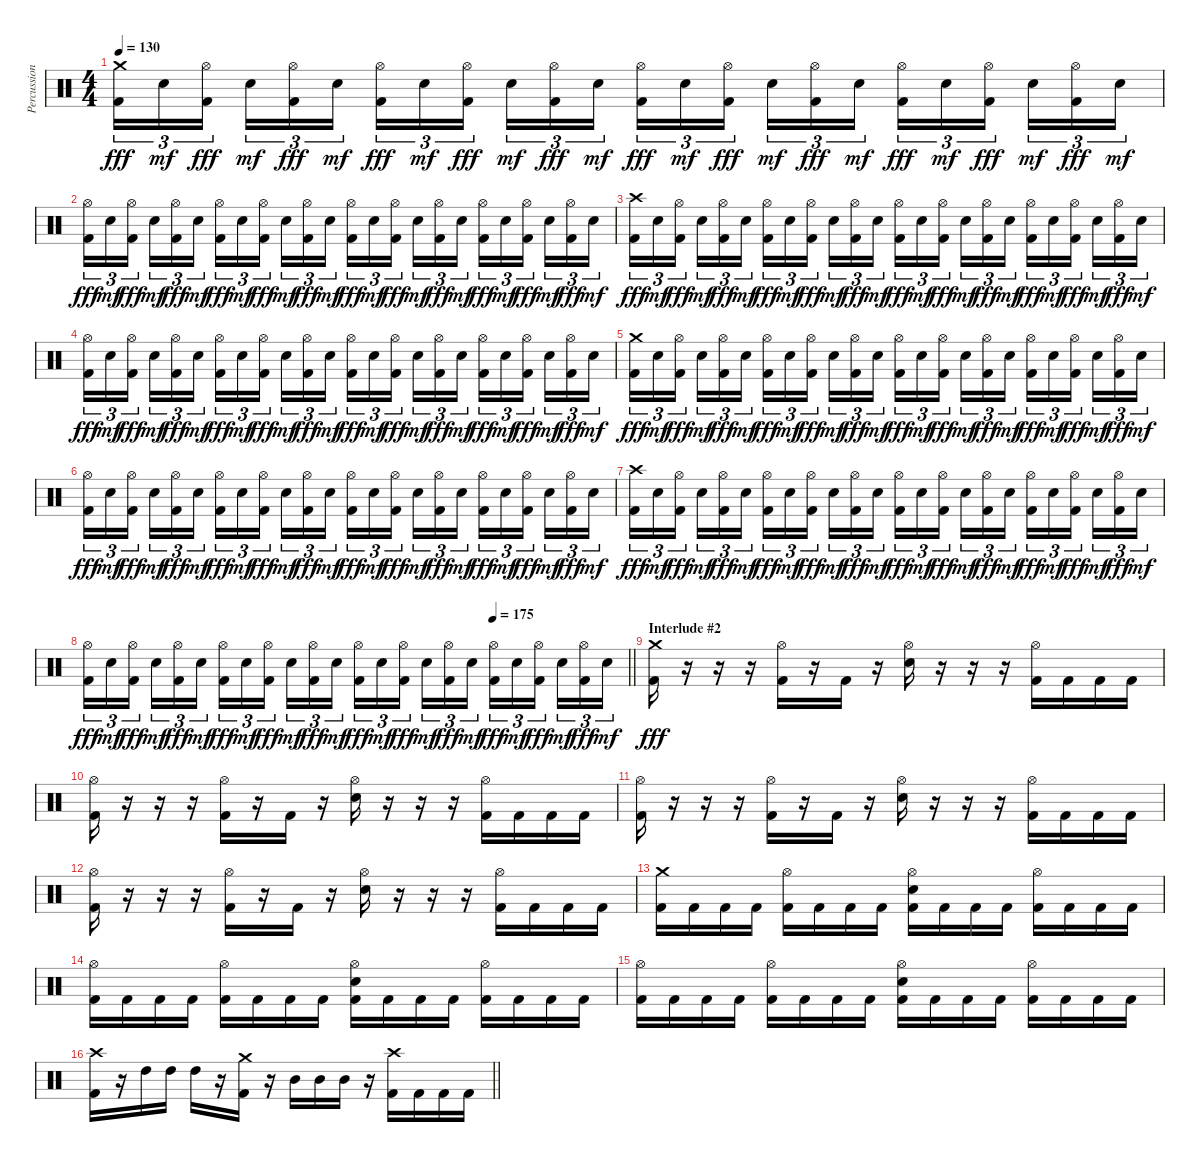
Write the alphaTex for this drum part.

\track ("Percussions" "Percussion") {instrument percussion}
\staff {score}
\articulation defaults
\ts (4 4)
\tempo 130
\clef neutral
\ks c
("Crash medium (hit)" "Kick (hit) 2").16{tu (3 2) dy fff} "Snare (hit) 2".16{tu (3 2) dy mf} ("Hi-Hat (open)" "Kick (hit) 2").16{tu (3 2) dy fff beam splitsecondary} "Snare (hit) 2".16{tu (3 2) dy mf} ("Hi-Hat (open)" "Kick (hit) 2").16{tu (3 2) dy fff} "Snare (hit) 2".16{tu (3 2) dy mf} ("Hi-Hat (open)" "Kick (hit) 2").16{tu (3 2) dy fff} "Snare (hit) 2".16{tu (3 2) dy mf} ("Hi-Hat (open)" "Kick (hit) 2").16{tu (3 2) dy fff beam splitsecondary} "Snare (hit) 2".16{tu (3 2) dy mf} ("Hi-Hat (open)" "Kick (hit) 2").16{tu (3 2) dy fff} "Snare (hit) 2".16{tu (3 2) dy mf} ("Hi-Hat (open)" "Kick (hit) 2").16{tu (3 2) dy fff} "Snare (hit) 2".16{tu (3 2) dy mf} ("Hi-Hat (open)" "Kick (hit) 2").16{tu (3 2) dy fff beam splitsecondary} "Snare (hit) 2".16{tu (3 2) dy mf} ("Hi-Hat (open)" "Kick (hit) 2").16{tu (3 2) dy fff} "Snare (hit) 2".16{tu (3 2) dy mf} ("Hi-Hat (open)" "Kick (hit) 2").16{tu (3 2) dy fff} "Snare (hit) 2".16{tu (3 2) dy mf} ("Hi-Hat (open)" "Kick (hit) 2").16{tu (3 2) dy fff beam splitsecondary} "Snare (hit) 2".16{tu (3 2) dy mf} ("Hi-Hat (open)" "Kick (hit) 2").16{tu (3 2) dy fff} "Snare (hit) 2".16{tu (3 2) dy mf} |
("Hi-Hat (open)" "Kick (hit) 2").16{tu (3 2) dy fff} "Snare (hit) 2".16{tu (3 2) dy mf} ("Hi-Hat (open)" "Kick (hit) 2").16{tu (3 2) dy fff beam splitsecondary} "Snare (hit) 2".16{tu (3 2) dy mf} ("Hi-Hat (open)" "Kick (hit) 2").16{tu (3 2) dy fff} "Snare (hit) 2".16{tu (3 2) dy mf} ("Hi-Hat (open)" "Kick (hit) 2").16{tu (3 2) dy fff} "Snare (hit) 2".16{tu (3 2) dy mf} ("Hi-Hat (open)" "Kick (hit) 2").16{tu (3 2) dy fff beam splitsecondary} "Snare (hit) 2".16{tu (3 2) dy mf} ("Hi-Hat (open)" "Kick (hit) 2").16{tu (3 2) dy fff} "Snare (hit) 2".16{tu (3 2) dy mf} ("Hi-Hat (open)" "Kick (hit) 2").16{tu (3 2) dy fff} "Snare (hit) 2".16{tu (3 2) dy mf} ("Hi-Hat (open)" "Kick (hit) 2").16{tu (3 2) dy fff beam splitsecondary} "Snare (hit) 2".16{tu (3 2) dy mf} ("Hi-Hat (open)" "Kick (hit) 2").16{tu (3 2) dy fff} "Snare (hit) 2".16{tu (3 2) dy mf} ("Hi-Hat (open)" "Kick (hit) 2").16{tu (3 2) dy fff} "Snare (hit) 2".16{tu (3 2) dy mf} ("Hi-Hat (open)" "Kick (hit) 2").16{tu (3 2) dy fff beam splitsecondary} "Snare (hit) 2".16{tu (3 2) dy mf} ("Hi-Hat (open)" "Kick (hit) 2").16{tu (3 2) dy fff} "Snare (hit) 2".16{tu (3 2) dy mf} |
("Crash high (hit)" "Kick (hit) 2").16{tu (3 2) dy fff} "Snare (hit) 2".16{tu (3 2) dy mf} ("Hi-Hat (open)" "Kick (hit) 2").16{tu (3 2) dy fff beam splitsecondary} "Snare (hit) 2".16{tu (3 2) dy mf} ("Hi-Hat (open)" "Kick (hit) 2").16{tu (3 2) dy fff} "Snare (hit) 2".16{tu (3 2) dy mf} ("Hi-Hat (open)" "Kick (hit) 2").16{tu (3 2) dy fff} "Snare (hit) 2".16{tu (3 2) dy mf} ("Hi-Hat (open)" "Kick (hit) 2").16{tu (3 2) dy fff beam splitsecondary} "Snare (hit) 2".16{tu (3 2) dy mf} ("Hi-Hat (open)" "Kick (hit) 2").16{tu (3 2) dy fff} "Snare (hit) 2".16{tu (3 2) dy mf} ("Hi-Hat (open)" "Kick (hit) 2").16{tu (3 2) dy fff} "Snare (hit) 2".16{tu (3 2) dy mf} ("Hi-Hat (open)" "Kick (hit) 2").16{tu (3 2) dy fff beam splitsecondary} "Snare (hit) 2".16{tu (3 2) dy mf} ("Hi-Hat (open)" "Kick (hit) 2").16{tu (3 2) dy fff} "Snare (hit) 2".16{tu (3 2) dy mf} ("Hi-Hat (open)" "Kick (hit) 2").16{tu (3 2) dy fff} "Snare (hit) 2".16{tu (3 2) dy mf} ("Hi-Hat (open)" "Kick (hit) 2").16{tu (3 2) dy fff beam splitsecondary} "Snare (hit) 2".16{tu (3 2) dy mf} ("Hi-Hat (open)" "Kick (hit) 2").16{tu (3 2) dy fff} "Snare (hit) 2".16{tu (3 2) dy mf} |
("Hi-Hat (open)" "Kick (hit) 2").16{tu (3 2) dy fff} "Snare (hit) 2".16{tu (3 2) dy mf} ("Hi-Hat (open)" "Kick (hit) 2").16{tu (3 2) dy fff beam splitsecondary} "Snare (hit) 2".16{tu (3 2) dy mf} ("Hi-Hat (open)" "Kick (hit) 2").16{tu (3 2) dy fff} "Snare (hit) 2".16{tu (3 2) dy mf} ("Hi-Hat (open)" "Kick (hit) 2").16{tu (3 2) dy fff} "Snare (hit) 2".16{tu (3 2) dy mf} ("Hi-Hat (open)" "Kick (hit) 2").16{tu (3 2) dy fff beam splitsecondary} "Snare (hit) 2".16{tu (3 2) dy mf} ("Hi-Hat (open)" "Kick (hit) 2").16{tu (3 2) dy fff} "Snare (hit) 2".16{tu (3 2) dy mf} ("Hi-Hat (open)" "Kick (hit) 2").16{tu (3 2) dy fff} "Snare (hit) 2".16{tu (3 2) dy mf} ("Hi-Hat (open)" "Kick (hit) 2").16{tu (3 2) dy fff beam splitsecondary} "Snare (hit) 2".16{tu (3 2) dy mf} ("Hi-Hat (open)" "Kick (hit) 2").16{tu (3 2) dy fff} "Snare (hit) 2".16{tu (3 2) dy mf} ("Hi-Hat (open)" "Kick (hit) 2").16{tu (3 2) dy fff} "Snare (hit) 2".16{tu (3 2) dy mf} ("Hi-Hat (open)" "Kick (hit) 2").16{tu (3 2) dy fff beam splitsecondary} "Snare (hit) 2".16{tu (3 2) dy mf} ("Hi-Hat (open)" "Kick (hit) 2").16{tu (3 2) dy fff} "Snare (hit) 2".16{tu (3 2) dy mf} |
("Crash medium (hit)" "Kick (hit) 2").16{tu (3 2) dy fff} "Snare (hit) 2".16{tu (3 2) dy mf} ("Hi-Hat (open)" "Kick (hit) 2").16{tu (3 2) dy fff beam splitsecondary} "Snare (hit) 2".16{tu (3 2) dy mf} ("Hi-Hat (open)" "Kick (hit) 2").16{tu (3 2) dy fff} "Snare (hit) 2".16{tu (3 2) dy mf} ("Hi-Hat (open)" "Kick (hit) 2").16{tu (3 2) dy fff} "Snare (hit) 2".16{tu (3 2) dy mf} ("Hi-Hat (open)" "Kick (hit) 2").16{tu (3 2) dy fff beam splitsecondary} "Snare (hit) 2".16{tu (3 2) dy mf} ("Hi-Hat (open)" "Kick (hit) 2").16{tu (3 2) dy fff} "Snare (hit) 2".16{tu (3 2) dy mf} ("Hi-Hat (open)" "Kick (hit) 2").16{tu (3 2) dy fff} "Snare (hit) 2".16{tu (3 2) dy mf} ("Hi-Hat (open)" "Kick (hit) 2").16{tu (3 2) dy fff beam splitsecondary} "Snare (hit) 2".16{tu (3 2) dy mf} ("Hi-Hat (open)" "Kick (hit) 2").16{tu (3 2) dy fff} "Snare (hit) 2".16{tu (3 2) dy mf} ("Hi-Hat (open)" "Kick (hit) 2").16{tu (3 2) dy fff} "Snare (hit) 2".16{tu (3 2) dy mf} ("Hi-Hat (open)" "Kick (hit) 2").16{tu (3 2) dy fff beam splitsecondary} "Snare (hit) 2".16{tu (3 2) dy mf} ("Hi-Hat (open)" "Kick (hit) 2").16{tu (3 2) dy fff} "Snare (hit) 2".16{tu (3 2) dy mf} |
("Hi-Hat (open)" "Kick (hit) 2").16{tu (3 2) dy fff} "Snare (hit) 2".16{tu (3 2) dy mf} ("Hi-Hat (open)" "Kick (hit) 2").16{tu (3 2) dy fff beam splitsecondary} "Snare (hit) 2".16{tu (3 2) dy mf} ("Hi-Hat (open)" "Kick (hit) 2").16{tu (3 2) dy fff} "Snare (hit) 2".16{tu (3 2) dy mf} ("Hi-Hat (open)" "Kick (hit) 2").16{tu (3 2) dy fff} "Snare (hit) 2".16{tu (3 2) dy mf} ("Hi-Hat (open)" "Kick (hit) 2").16{tu (3 2) dy fff beam splitsecondary} "Snare (hit) 2".16{tu (3 2) dy mf} ("Hi-Hat (open)" "Kick (hit) 2").16{tu (3 2) dy fff} "Snare (hit) 2".16{tu (3 2) dy mf} ("Hi-Hat (open)" "Kick (hit) 2").16{tu (3 2) dy fff} "Snare (hit) 2".16{tu (3 2) dy mf} ("Hi-Hat (open)" "Kick (hit) 2").16{tu (3 2) dy fff beam splitsecondary} "Snare (hit) 2".16{tu (3 2) dy mf} ("Hi-Hat (open)" "Kick (hit) 2").16{tu (3 2) dy fff} "Snare (hit) 2".16{tu (3 2) dy mf} ("Hi-Hat (open)" "Kick (hit) 2").16{tu (3 2) dy fff} "Snare (hit) 2".16{tu (3 2) dy mf} ("Hi-Hat (open)" "Kick (hit) 2").16{tu (3 2) dy fff beam splitsecondary} "Snare (hit) 2".16{tu (3 2) dy mf} ("Hi-Hat (open)" "Kick (hit) 2").16{tu (3 2) dy fff} "Snare (hit) 2".16{tu (3 2) dy mf} |
("Crash high (hit)" "Kick (hit) 2").16{tu (3 2) dy fff} "Snare (hit) 2".16{tu (3 2) dy mf} ("Hi-Hat (open)" "Kick (hit) 2").16{tu (3 2) dy fff beam splitsecondary} "Snare (hit) 2".16{tu (3 2) dy mf} ("Hi-Hat (open)" "Kick (hit) 2").16{tu (3 2) dy fff} "Snare (hit) 2".16{tu (3 2) dy mf} ("Hi-Hat (open)" "Kick (hit) 2").16{tu (3 2) dy fff} "Snare (hit) 2".16{tu (3 2) dy mf} ("Hi-Hat (open)" "Kick (hit) 2").16{tu (3 2) dy fff beam splitsecondary} "Snare (hit) 2".16{tu (3 2) dy mf} ("Hi-Hat (open)" "Kick (hit) 2").16{tu (3 2) dy fff} "Snare (hit) 2".16{tu (3 2) dy mf} ("Hi-Hat (open)" "Kick (hit) 2").16{tu (3 2) dy fff} "Snare (hit) 2".16{tu (3 2) dy mf} ("Hi-Hat (open)" "Kick (hit) 2").16{tu (3 2) dy fff beam splitsecondary} "Snare (hit) 2".16{tu (3 2) dy mf} ("Hi-Hat (open)" "Kick (hit) 2").16{tu (3 2) dy fff} "Snare (hit) 2".16{tu (3 2) dy mf} ("Hi-Hat (open)" "Kick (hit) 2").16{tu (3 2) dy fff} "Snare (hit) 2".16{tu (3 2) dy mf} ("Hi-Hat (open)" "Kick (hit) 2").16{tu (3 2) dy fff beam splitsecondary} "Snare (hit) 2".16{tu (3 2) dy mf} ("Hi-Hat (open)" "Kick (hit) 2").16{tu (3 2) dy fff} "Snare (hit) 2".16{tu (3 2) dy mf} |
\tempo (175 0.75)
\barLineRight lightlight
("Hi-Hat (open)" "Kick (hit) 2").16{tu (3 2) dy fff} "Snare (hit) 2".16{tu (3 2) dy mf} ("Hi-Hat (open)" "Kick (hit) 2").16{tu (3 2) dy fff beam splitsecondary} "Snare (hit) 2".16{tu (3 2) dy mf} ("Hi-Hat (open)" "Kick (hit) 2").16{tu (3 2) dy fff} "Snare (hit) 2".16{tu (3 2) dy mf} ("Hi-Hat (open)" "Kick (hit) 2").16{tu (3 2) dy fff} "Snare (hit) 2".16{tu (3 2) dy mf} ("Hi-Hat (open)" "Kick (hit) 2").16{tu (3 2) dy fff beam splitsecondary} "Snare (hit) 2".16{tu (3 2) dy mf} ("Hi-Hat (open)" "Kick (hit) 2").16{tu (3 2) dy fff} "Snare (hit) 2".16{tu (3 2) dy mf} ("Hi-Hat (open)" "Kick (hit) 2").16{tu (3 2) dy fff} "Snare (hit) 2".16{tu (3 2) dy mf} ("Hi-Hat (open)" "Kick (hit) 2").16{tu (3 2) dy fff beam splitsecondary} "Snare (hit) 2".16{tu (3 2) dy mf} ("Hi-Hat (open)" "Kick (hit) 2").16{tu (3 2) dy fff} "Snare (hit) 2".16{tu (3 2) dy mf} ("Hi-Hat (open)" "Kick (hit) 2").16{tu (3 2) dy fff} "Snare (hit) 2".16{tu (3 2) dy mf} ("Hi-Hat (open)" "Kick (hit) 2").16{tu (3 2) dy fff beam splitsecondary} "Snare (hit) 2".16{tu (3 2) dy mf} ("Hi-Hat (open)" "Kick (hit) 2").16{tu (3 2) dy fff} "Snare (hit) 2".16{tu (3 2) dy mf} |
\section ("" "Interlude #2")
("Crash medium (hit)" "Kick (hit) 2").16{dy fff} r.16 r.16 r.16 ("Hi-Hat (open)" "Kick (hit) 2").16 r.16 "Kick (hit) 2".16 r.16 ("Hi-Hat (open)" "Snare (hit) 2").16 r.16 r.16 r.16 ("Hi-Hat (open)" "Kick (hit) 2").16 "Kick (hit) 2".16 "Kick (hit) 2".16 "Kick (hit) 2".16 |
("Hi-Hat (open)" "Kick (hit) 2").16 r.16 r.16 r.16 ("Hi-Hat (open)" "Kick (hit) 2").16 r.16 "Kick (hit) 2".16 r.16 ("Hi-Hat (open)" "Snare (hit) 2").16 r.16 r.16 r.16 ("Hi-Hat (open)" "Kick (hit) 2").16 "Kick (hit) 2".16 "Kick (hit) 2".16 "Kick (hit) 2".16 |
("Hi-Hat (open)" "Kick (hit) 2").16 r.16 r.16 r.16 ("Hi-Hat (open)" "Kick (hit) 2").16 r.16 "Kick (hit) 2".16 r.16 ("Hi-Hat (open)" "Snare (hit) 2").16 r.16 r.16 r.16 ("Hi-Hat (open)" "Kick (hit) 2").16 "Kick (hit) 2".16 "Kick (hit) 2".16 "Kick (hit) 2".16 |
("Hi-Hat (open)" "Kick (hit) 2").16 r.16 r.16 r.16 ("Hi-Hat (open)" "Kick (hit) 2").16 r.16 "Kick (hit) 2".16 r.16 ("Hi-Hat (open)" "Snare (hit) 2").16 r.16 r.16 r.16 ("Hi-Hat (open)" "Kick (hit) 2").16 "Kick (hit) 2".16 "Kick (hit) 2".16 "Kick (hit) 2".16 |
("Crash medium (hit)" "Kick (hit) 2").16 "Kick (hit) 2".16 "Kick (hit) 2".16 "Kick (hit) 2".16 ("Hi-Hat (open)" "Kick (hit) 2").16 "Kick (hit) 2".16 "Kick (hit) 2".16 "Kick (hit) 2".16 ("Hi-Hat (open)" "Snare (hit) 2" "Kick (hit) 2").16 "Kick (hit) 2".16 "Kick (hit) 2".16 "Kick (hit) 2".16 ("Hi-Hat (open)" "Kick (hit) 2").16 "Kick (hit) 2".16 "Kick (hit) 2".16 "Kick (hit) 2".16 |
("Hi-Hat (open)" "Kick (hit) 2").16 "Kick (hit) 2".16 "Kick (hit) 2".16 "Kick (hit) 2".16 ("Hi-Hat (open)" "Kick (hit) 2").16 "Kick (hit) 2".16 "Kick (hit) 2".16 "Kick (hit) 2".16 ("Hi-Hat (open)" "Snare (hit) 2" "Kick (hit) 2").16 "Kick (hit) 2".16 "Kick (hit) 2".16 "Kick (hit) 2".16 ("Hi-Hat (open)" "Kick (hit) 2").16 "Kick (hit) 2".16 "Kick (hit) 2".16 "Kick (hit) 2".16 |
("Hi-Hat (open)" "Kick (hit) 2").16 "Kick (hit) 2".16 "Kick (hit) 2".16 "Kick (hit) 2".16 ("Hi-Hat (open)" "Kick (hit) 2").16 "Kick (hit) 2".16 "Kick (hit) 2".16 "Kick (hit) 2".16 ("Hi-Hat (open)" "Snare (hit) 2" "Kick (hit) 2").16 "Kick (hit) 2".16 "Kick (hit) 2".16 "Kick (hit) 2".16 ("Hi-Hat (open)" "Kick (hit) 2").16 "Kick (hit) 2".16 "Kick (hit) 2".16 "Kick (hit) 2".16 |
\barLineRight lightlight
("Crash high (hit)" "Kick (hit) 2").16 r.16 "High Tom (hit)".16 "High Tom (hit)".16 "High Tom (hit)".16 r.16 ("Crash medium (hit)" "Kick (hit) 2").16 r.16 "Mid Tom (hit)".16 "Mid Tom (hit)".16 "Mid Tom (hit)".16 r.16 ("Crash high (hit)" "Kick (hit) 2").16 "Kick (hit) 2".16 "Kick (hit) 2".16 "Kick (hit) 2".16
